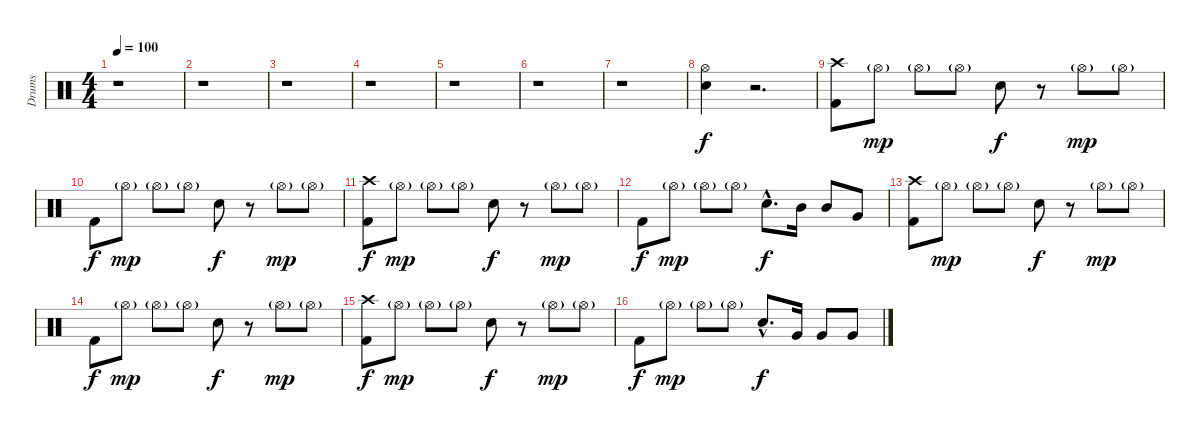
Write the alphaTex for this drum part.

\track ("Drums" "Drums") {instrument percussion}
\staff {score}
\articulation defaults
\ts (4 4)
\tempo 100
\clef neutral
\ks c
r.1{dy f} |
r.1 |
r.1 |
r.1 |
r.1 |
r.1 |
r.1 |
("Snare (hit) 2" "Hi-Hat (open)").4 r.2{d} |
("Crash high (hit)" "Kick (hit) 2").8 "Hi-Hat (open)"{g}.8{dy mp} "Hi-Hat (open)"{g}.8 "Hi-Hat (open)"{g}.8 "Snare (hit) 2".8{dy f} r.8 "Hi-Hat (open)"{g}.8{dy mp} "Hi-Hat (open)"{g}.8 |
"Kick (hit) 2".8{dy f} "Hi-Hat (open)"{g}.8{dy mp} "Hi-Hat (open)"{g}.8 "Hi-Hat (open)"{g}.8 "Snare (hit) 2".8{dy f} r.8 "Hi-Hat (open)"{g}.8{dy mp} "Hi-Hat (open)"{g}.8 |
("Crash high (hit)" "Kick (hit) 2").8{dy f} "Hi-Hat (open)"{g}.8{dy mp} "Hi-Hat (open)"{g}.8 "Hi-Hat (open)"{g}.8 "Snare (hit) 2".8{dy f} r.8 "Hi-Hat (open)"{g}.8{dy mp} "Hi-Hat (open)"{g}.8 |
"Kick (hit) 2".8{dy f} "Hi-Hat (open)"{g}.8{dy mp} "Hi-Hat (open)"{g}.8 "Hi-Hat (open)"{g}.8 "Snare (hit) 2"{hac}.8{d dy f} "Mid Tom (hit)".16 "Mid Tom (hit)".8 "Very Low Tom (hit)".8 |
("Crash high (hit)" "Kick (hit) 2").8 "Hi-Hat (open)"{g}.8{dy mp} "Hi-Hat (open)"{g}.8 "Hi-Hat (open)"{g}.8 "Snare (hit) 2".8{dy f} r.8 "Hi-Hat (open)"{g}.8{dy mp} "Hi-Hat (open)"{g}.8 |
"Kick (hit) 2".8{dy f} "Hi-Hat (open)"{g}.8{dy mp} "Hi-Hat (open)"{g}.8 "Hi-Hat (open)"{g}.8 "Snare (hit) 2".8{dy f} r.8 "Hi-Hat (open)"{g}.8{dy mp} "Hi-Hat (open)"{g}.8 |
("Crash high (hit)" "Kick (hit) 2").8{dy f} "Hi-Hat (open)"{g}.8{dy mp} "Hi-Hat (open)"{g}.8 "Hi-Hat (open)"{g}.8 "Snare (hit) 2".8{dy f} r.8 "Hi-Hat (open)"{g}.8{dy mp} "Hi-Hat (open)"{g}.8 |
"Kick (hit) 2".8{dy f} "Hi-Hat (open)"{g}.8{dy mp} "Hi-Hat (open)"{g}.8 "Hi-Hat (open)"{g}.8 "Snare (hit) 2"{hac}.8{d dy f} "Very Low Tom (hit)".16 "Very Low Tom (hit)".8 "Very Low Tom (hit)".8
